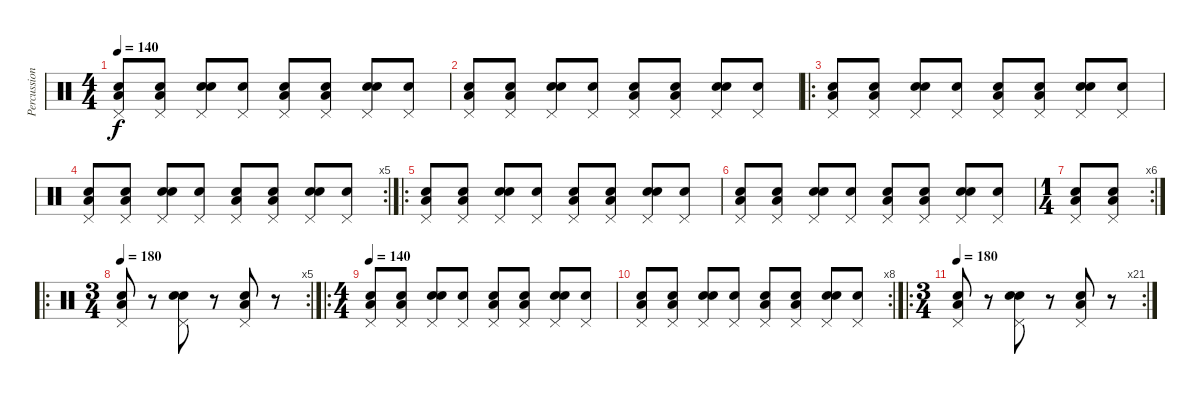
\track ("Percussion" "Percussion") {instrument percussion}
\staff {score}
\articulation defaults
\ts (4 4)
\tempo 140
\clef neutral
\ks c
("Snare (hit)" "Low Floor Tom (hit)" "Pedal Hi-Hat (hit)").8{dy f} ("Snare (hit)" "Low Floor Tom (hit)" "Pedal Hi-Hat (hit)").8 ("Snare (hit)" "Electric Snare (hit)" "Pedal Hi-Hat (hit)").8 ("Snare (hit)" "Pedal Hi-Hat (hit)").8 ("Snare (hit)" "Low Floor Tom (hit)" "Pedal Hi-Hat (hit)").8 ("Snare (hit)" "Low Floor Tom (hit)" "Pedal Hi-Hat (hit)").8 ("Snare (hit)" "Electric Snare (hit)" "Pedal Hi-Hat (hit)").8 ("Snare (hit)" "Pedal Hi-Hat (hit)").8 |
("Snare (hit)" "Low Floor Tom (hit)" "Pedal Hi-Hat (hit)").8 ("Snare (hit)" "Low Floor Tom (hit)" "Pedal Hi-Hat (hit)").8 ("Snare (hit)" "Electric Snare (hit)" "Pedal Hi-Hat (hit)").8 ("Snare (hit)" "Pedal Hi-Hat (hit)").8 ("Snare (hit)" "Low Floor Tom (hit)" "Pedal Hi-Hat (hit)").8 ("Snare (hit)" "Low Floor Tom (hit)" "Pedal Hi-Hat (hit)").8 ("Snare (hit)" "Electric Snare (hit)" "Pedal Hi-Hat (hit)").8 ("Snare (hit)" "Pedal Hi-Hat (hit)").8 |
\ro
("Snare (hit)" "Low Floor Tom (hit)" "Pedal Hi-Hat (hit)").8 ("Snare (hit)" "Low Floor Tom (hit)" "Pedal Hi-Hat (hit)").8 ("Snare (hit)" "Electric Snare (hit)" "Pedal Hi-Hat (hit)").8 ("Snare (hit)" "Pedal Hi-Hat (hit)").8 ("Snare (hit)" "Low Floor Tom (hit)" "Pedal Hi-Hat (hit)").8 ("Snare (hit)" "Low Floor Tom (hit)" "Pedal Hi-Hat (hit)").8 ("Snare (hit)" "Electric Snare (hit)" "Pedal Hi-Hat (hit)").8 ("Snare (hit)" "Pedal Hi-Hat (hit)").8 |
\rc 5
("Snare (hit)" "Low Floor Tom (hit)" "Pedal Hi-Hat (hit)").8 ("Snare (hit)" "Low Floor Tom (hit)" "Pedal Hi-Hat (hit)").8 ("Snare (hit)" "Electric Snare (hit)" "Pedal Hi-Hat (hit)").8 ("Snare (hit)" "Pedal Hi-Hat (hit)").8 ("Snare (hit)" "Low Floor Tom (hit)" "Pedal Hi-Hat (hit)").8 ("Snare (hit)" "Low Floor Tom (hit)" "Pedal Hi-Hat (hit)").8 ("Snare (hit)" "Electric Snare (hit)" "Pedal Hi-Hat (hit)").8 ("Snare (hit)" "Pedal Hi-Hat (hit)").8 |
\ro
("Snare (hit)" "Low Floor Tom (hit)" "Pedal Hi-Hat (hit)").8 ("Snare (hit)" "Low Floor Tom (hit)" "Pedal Hi-Hat (hit)").8 ("Snare (hit)" "Electric Snare (hit)" "Pedal Hi-Hat (hit)").8 ("Snare (hit)" "Pedal Hi-Hat (hit)").8 ("Snare (hit)" "Low Floor Tom (hit)" "Pedal Hi-Hat (hit)").8 ("Snare (hit)" "Low Floor Tom (hit)" "Pedal Hi-Hat (hit)").8 ("Snare (hit)" "Electric Snare (hit)" "Pedal Hi-Hat (hit)").8 ("Snare (hit)" "Pedal Hi-Hat (hit)").8 |
("Snare (hit)" "Low Floor Tom (hit)" "Pedal Hi-Hat (hit)").8 ("Snare (hit)" "Low Floor Tom (hit)" "Pedal Hi-Hat (hit)").8 ("Snare (hit)" "Electric Snare (hit)" "Pedal Hi-Hat (hit)").8 ("Snare (hit)" "Pedal Hi-Hat (hit)").8 ("Snare (hit)" "Low Floor Tom (hit)" "Pedal Hi-Hat (hit)").8 ("Snare (hit)" "Low Floor Tom (hit)" "Pedal Hi-Hat (hit)").8 ("Snare (hit)" "Electric Snare (hit)" "Pedal Hi-Hat (hit)").8 ("Snare (hit)" "Pedal Hi-Hat (hit)").8 |
\rc 6
\ts (1 4)
("Snare (hit)" "Low Floor Tom (hit)" "Pedal Hi-Hat (hit)").8 ("Snare (hit)" "Low Floor Tom (hit)" "Pedal Hi-Hat (hit)").8 |
\ro
\rc 5
\ts (3 4)
\tempo 180
("Snare (hit)" "Low Floor Tom (hit)" "Pedal Hi-Hat (hit)").8 r.8 ("Snare (hit)" "Electric Snare (hit)" "Pedal Hi-Hat (hit)").8 r.8 ("Snare (hit)" "Low Floor Tom (hit)" "Pedal Hi-Hat (hit)").8 r.8 |
\ro
\ts (4 4)
\tempo 140
("Snare (hit)" "Low Floor Tom (hit)" "Pedal Hi-Hat (hit)").8 ("Snare (hit)" "Low Floor Tom (hit)" "Pedal Hi-Hat (hit)").8 ("Snare (hit)" "Electric Snare (hit)" "Pedal Hi-Hat (hit)").8 ("Snare (hit)" "Pedal Hi-Hat (hit)").8 ("Snare (hit)" "Low Floor Tom (hit)" "Pedal Hi-Hat (hit)").8 ("Snare (hit)" "Low Floor Tom (hit)" "Pedal Hi-Hat (hit)").8 ("Snare (hit)" "Electric Snare (hit)" "Pedal Hi-Hat (hit)").8 ("Snare (hit)" "Pedal Hi-Hat (hit)").8 |
\rc 8
("Snare (hit)" "Low Floor Tom (hit)" "Pedal Hi-Hat (hit)").8 ("Snare (hit)" "Low Floor Tom (hit)" "Pedal Hi-Hat (hit)").8 ("Snare (hit)" "Electric Snare (hit)" "Pedal Hi-Hat (hit)").8 ("Snare (hit)" "Pedal Hi-Hat (hit)").8 ("Snare (hit)" "Low Floor Tom (hit)" "Pedal Hi-Hat (hit)").8 ("Snare (hit)" "Low Floor Tom (hit)" "Pedal Hi-Hat (hit)").8 ("Snare (hit)" "Electric Snare (hit)" "Pedal Hi-Hat (hit)").8 ("Snare (hit)" "Pedal Hi-Hat (hit)").8 |
\ro
\rc 21
\ts (3 4)
\tempo 180
("Snare (hit)" "Low Floor Tom (hit)" "Pedal Hi-Hat (hit)").8 r.8 ("Snare (hit)" "Electric Snare (hit)" "Pedal Hi-Hat (hit)").8 r.8 ("Snare (hit)" "Low Floor Tom (hit)" "Pedal Hi-Hat (hit)").8 r.8
